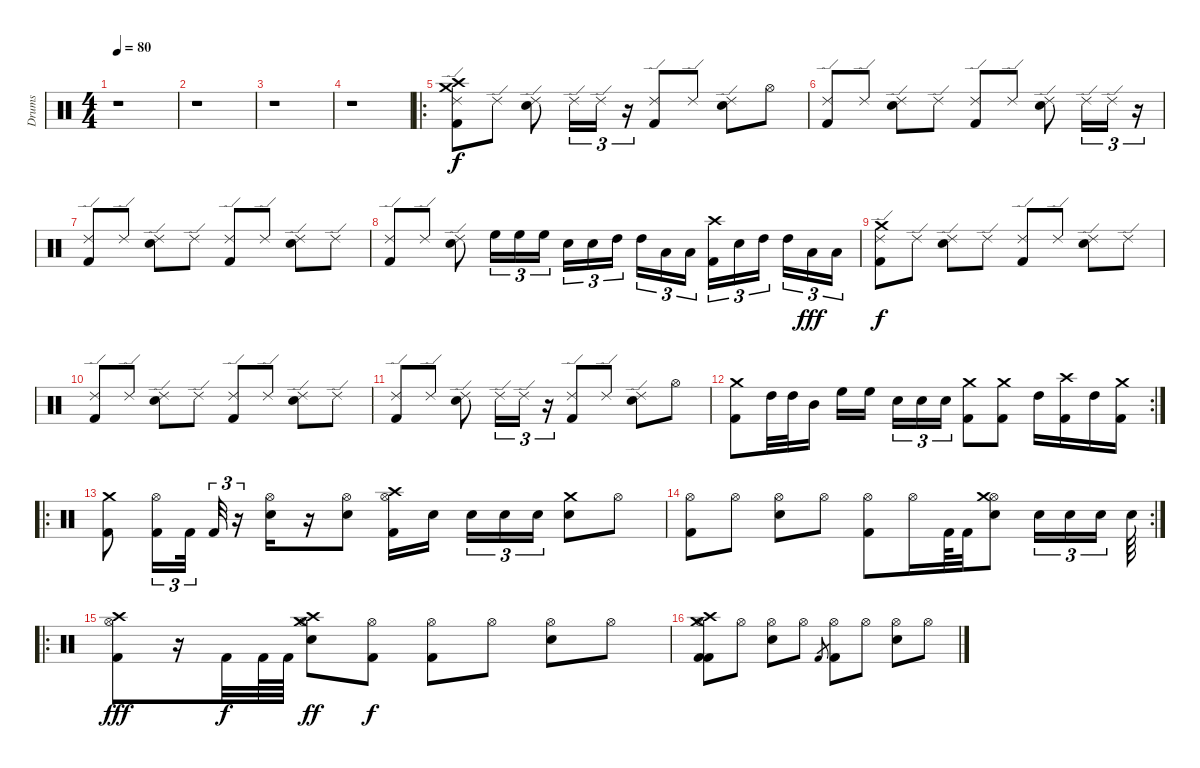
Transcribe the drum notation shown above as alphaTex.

\track ("Drums" "Drums") {instrument percussion}
\staff {score}
\articulation defaults
\ts (4 4)
\tempo 80
\clef neutral
\ks c
r.1{dy f} |
r.1 |
r.1 |
r.1 |
\ro
("Ride (edge) 2" "Kick (hit) 2" "Crash medium (hit)" "Crash high (hit)").8 "Ride (edge) 2".8 ("Ride (edge) 2" "Snare (hit) 2").8 "Ride (edge) 2".16{tu (3 2)} "Ride (edge) 2".16{tu (3 2)} r.16{tu (3 2)} ("Ride (edge) 2" "Kick (hit) 2").8 "Ride (edge) 2".8 ("Ride (edge) 2" "Snare (hit) 2").8 "Hi-Hat (open)".8 |
("Ride (edge) 2" "Kick (hit) 2").8 "Ride (edge) 2".8 ("Ride (edge) 2" "Snare (hit) 2").8 "Ride (edge) 2".8 ("Ride (edge) 2" "Kick (hit) 2").8 "Ride (edge) 2".8 ("Ride (edge) 2" "Snare (hit) 2").8 "Ride (edge) 2".16{tu (3 2)} "Ride (edge) 2".16{tu (3 2)} r.16{tu (3 2)} |
("Ride (edge) 2" "Kick (hit) 2").8 "Ride (edge) 2".8 ("Ride (edge) 2" "Snare (hit) 2").8 "Ride (edge) 2".8 ("Ride (edge) 2" "Kick (hit) 2").8 "Ride (edge) 2".8 ("Ride (edge) 2" "Snare (hit) 2").8 "Ride (edge) 2".8 |
("Ride (edge) 2" "Kick (hit) 2").8 "Ride (edge) 2".8 ("Ride (edge) 2" "Snare (hit) 2").8 "High Floor Tom (hit)".16{tu (3 2)} "High Floor Tom (hit)".16{tu (3 2)} "High Floor Tom (hit)".16{tu (3 2)} "Snare (hit) 2".16{tu (3 2)} "Snare (hit) 2".16{tu (3 2)} "High Tom (hit)".16{tu (3 2)} "High Tom (hit)".16{tu (3 2)} "Low Tom (hit)".16{tu (3 2)} "Low Tom (hit)".16{tu (3 2)} ("Crash high (hit)" "Kick (hit) 2").16{tu (3 2)} "Snare (hit) 2".16{tu (3 2)} "High Tom (hit)".16{tu (3 2)} "High Tom (hit)".16{tu (3 2)} "Low Tom (hit)".16{tu (3 2) dy fff} "Low Tom (hit)".16{tu (3 2)} |
("Ride (edge) 2" "Kick (hit) 2" "Crash medium (hit)").8{dy f} "Ride (edge) 2".8 ("Ride (edge) 2" "Snare (hit) 2").8 "Ride (edge) 2".8 ("Ride (edge) 2" "Kick (hit) 2").8 "Ride (edge) 2".8 ("Ride (edge) 2" "Snare (hit) 2").8 "Ride (edge) 2".8 |
("Ride (edge) 2" "Kick (hit) 2").8 "Ride (edge) 2".8 ("Ride (edge) 2" "Snare (hit) 2").8 "Ride (edge) 2".8 ("Ride (edge) 2" "Kick (hit) 2").8 "Ride (edge) 2".8 ("Ride (edge) 2" "Snare (hit) 2").8 "Ride (edge) 2".8 |
("Ride (edge) 2" "Kick (hit) 2").8 "Ride (edge) 2".8 ("Ride (edge) 2" "Snare (hit) 2").8 "Ride (edge) 2".16{tu (3 2)} "Ride (edge) 2".16{tu (3 2)} r.16{tu (3 2)} ("Ride (edge) 2" "Kick (hit) 2").8 "Ride (edge) 2".8 ("Ride (edge) 2" "Snare (hit) 2").8 "Hi-Hat (open)".8 |
\rc 2
("Kick (hit) 2" "Crash medium (hit)").8 "High Tom (hit)".32 "High Tom (hit)".32 "Mid Tom (hit)".16 "High Floor Tom (hit)".16 "High Floor Tom (hit)".16 "Snare (hit) 2".16{tu (3 2)} "Snare (hit) 2".16{tu (3 2)} "Snare (hit) 2".16{tu (3 2)} ("Crash medium (hit)" "Kick (hit) 2").8 ("Crash medium (hit)" "Kick (hit) 2").8 "High Tom (hit)".16 ("Crash high (hit)" "Kick (hit) 2").16 "High Tom (hit)".16 ("Crash medium (hit)" "Kick (hit) 2").16 |
\ro
("Crash medium (hit)" "Kick (hit) 2").8 ("Hi-Hat (open)" "Kick (hit) 2").16{tu (3 2)} "Kick (hit) 2".32{tu (3 2)} "Kick (hit) 2".32{tu (3 2)} r.16{tu (3 2)} ("Hi-Hat (open)" "Snare (hit) 2").16 r.16 ("Hi-Hat (open)" "Snare (hit) 2").8 ("Hi-Hat (open)" "Kick (hit) 2" "Crash high (hit)").16 "Snare (hit) 2".16 "Snare (hit) 2".16{tu (3 2)} "Snare (hit) 2".16{tu (3 2)} "Snare (hit) 2".16{tu (3 2)} ("Snare (hit) 2" "Crash medium (hit)").8 "Hi-Hat (open)".8 |
\rc 2
("Hi-Hat (open)" "Kick (hit) 2").8 "Hi-Hat (open)".8 ("Hi-Hat (open)" "Snare (hit) 2").8 "Hi-Hat (open)".8 ("Hi-Hat (open)" "Kick (hit) 2").8 "Hi-Hat (open)".16 "Kick (hit) 2".64 "Kick (hit) 2".32 ("Hi-Hat (open)" "Snare (hit) 2" "Crash medium (hit)").8 "Snare (hit) 2".16{tu (3 2)} "Snare (hit) 2".16{tu (3 2)} "Snare (hit) 2".16{tu (3 2)} "Snare (hit) 2".64 |
\ro
("Hi-Hat (open)" "Kick (hit) 2" "Crash high (hit)").8{dy fff} r.16 "Kick (hit) 2".32{dy f} "Kick (hit) 2".64 "Kick (hit) 2".64 ("Hi-Hat (open)" "Snare (hit) 2" "Crash high (hit)" "Crash medium (hit)").8{dy ff} ("Hi-Hat (open)" "Kick (hit) 2").8{dy f} ("Hi-Hat (open)" "Kick (hit) 2").8 "Hi-Hat (open)".8 ("Hi-Hat (open)" "Snare (hit) 2").8 "Hi-Hat (open)".8 |
("Crash medium (hit)" "Crash high (hit)" "Hi-Hat (open)" "Kick (hit) 2" "Kick (hit) 2").8 "Hi-Hat (open)".8 ("Hi-Hat (open)" "Snare (hit) 2").8 "Hi-Hat (open)".8 "Kick (hit) 2".8{gr} ("Hi-Hat (open)" "Kick (hit) 2").8 "Hi-Hat (open)".8 ("Hi-Hat (open)" "Snare (hit) 2").8 "Hi-Hat (open)".8
